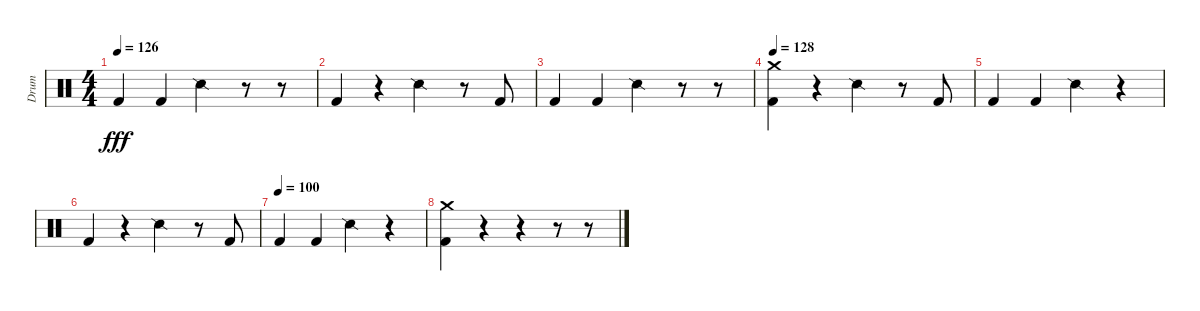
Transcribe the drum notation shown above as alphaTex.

\track ("Drum" "Drum") {instrument percussion}
\staff {score}
\articulation defaults
\ts (4 4)
\tempo 126
\clef neutral
\ks c "Kick (hit) 2".4{dy fff} "Kick (hit) 2".4 "Snare (side stick) 2".4
r.8 r.8 |
"Kick (hit) 2".4 r.4 "Snare (side stick) 2".4 r.8 "Kick (hit) 2".8 |
"Kick (hit) 2".4 "Kick (hit) 2".4 "Snare (side stick) 2".4 r.8 r.8 |
\tempo 128
("Kick (hit) 2" "Crash medium (hit)").4 r.4 "Snare (side stick) 2".4 r.8 "Kick (hit) 2".8 |
"Kick (hit) 2".4 "Kick (hit) 2".4 "Snare (side stick) 2".4 r.4 |
"Kick (hit) 2".4 r.4 "Snare (side stick) 2".4 r.8 "Kick (hit) 2".8 |
\tempo (100)
"Kick (hit) 2".4 "Kick (hit) 2".4 "Snare (side stick) 2".4 r.4 |
("Kick (hit) 2" "Crash medium (hit)").4 r.4 r.4 r.8 r.8
